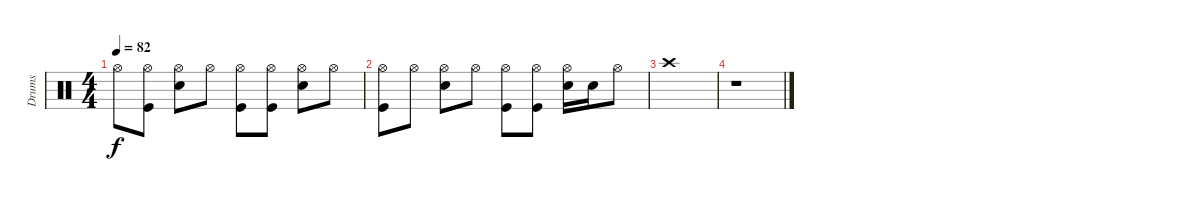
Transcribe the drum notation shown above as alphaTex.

\track ("Drums" "Drums") {instrument percussion}
\staff {score}
\articulation defaults
\ts (4 4)
\tempo 82
\clef neutral
\ks c "Hi-Hat (open)".8{dy f}
("Hi-Hat (open)" "Kick (hit)").8 ("Hi-Hat (open)" "Snare (hit) 2").8 "Hi-Hat (open)".8 ("Hi-Hat (open)" "Kick (hit)").8 ("Hi-Hat (open)" "Kick (hit)").8 ("Hi-Hat (open)" "Snare (hit) 2").8 "Hi-Hat (open)".8 |
("Hi-Hat (open)" "Kick (hit)").8 "Hi-Hat (open)".8 ("Hi-Hat (open)" "Snare (hit) 2").8 "Hi-Hat (open)".8 ("Hi-Hat (open)" "Kick (hit)").8 ("Hi-Hat (open)" "Kick (hit)").8 ("Hi-Hat (open)" "Snare (hit) 2").16 "Snare (hit) 2".16 "Hi-Hat (open)".8 |
"Crash high (hit)".1 |
r.1
